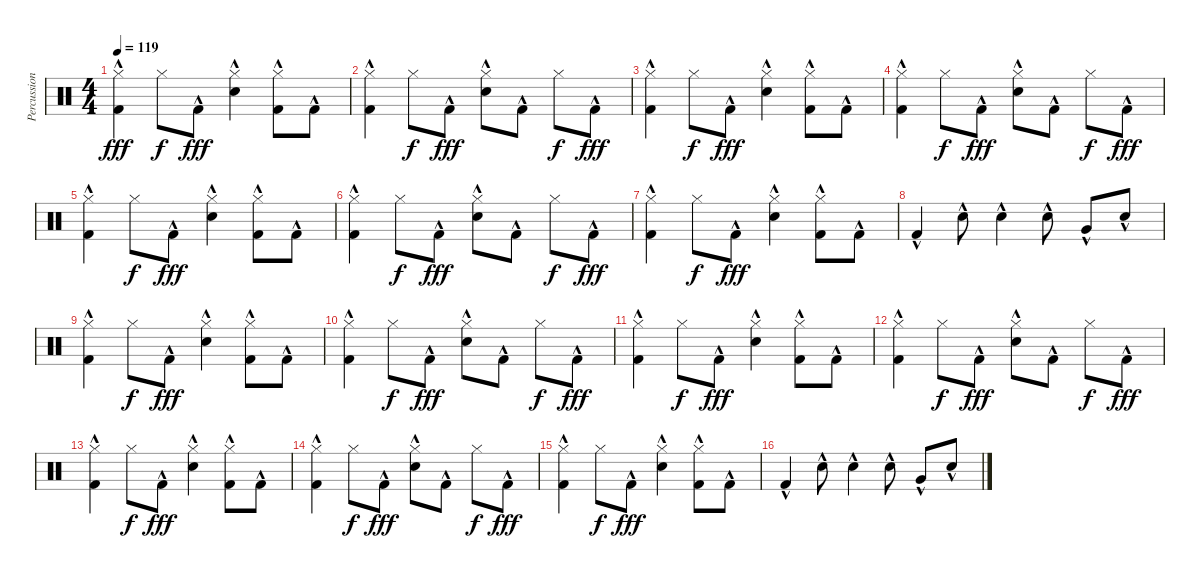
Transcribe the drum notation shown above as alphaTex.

\track ("Percussion" "Percussion") {instrument percussion}
\staff {score}
\articulation defaults
\ts (4 4)
\tempo 119
\clef neutral
\ks c
("Hi-Hat (closed)" "Kick (hit) 2"{hac}).4{dy fff} "Hi-Hat (closed)".8{dy f} "Kick (hit) 2"{hac}.8{dy fff} ("Hi-Hat (closed)" "Electric Snare (hit)"{hac}).4 ("Hi-Hat (closed)" "Kick (hit) 2"{hac}).8 "Kick (hit) 2"{hac}.8 |
("Hi-Hat (closed)" "Kick (hit) 2"{hac}).4 "Hi-Hat (closed)".8{dy f} "Kick (hit) 2"{hac}.8{dy fff} ("Hi-Hat (closed)" "Electric Snare (hit)"{hac}).8 "Kick (hit) 2"{hac}.8 "Hi-Hat (closed)".8{dy f} "Kick (hit) 2"{hac}.8{dy fff} |
("Hi-Hat (closed)" "Kick (hit) 2"{hac}).4 "Hi-Hat (closed)".8{dy f} "Kick (hit) 2"{hac}.8{dy fff} ("Hi-Hat (closed)" "Electric Snare (hit)"{hac}).4 ("Hi-Hat (closed)" "Kick (hit) 2"{hac}).8 "Kick (hit) 2"{hac}.8 |
("Hi-Hat (closed)" "Kick (hit) 2"{hac}).4 "Hi-Hat (closed)".8{dy f} "Kick (hit) 2"{hac}.8{dy fff} ("Hi-Hat (closed)" "Electric Snare (hit)"{hac}).8 "Kick (hit) 2"{hac}.8 "Hi-Hat (closed)".8{dy f} "Kick (hit) 2"{hac}.8{dy fff} |
("Hi-Hat (closed)" "Kick (hit) 2"{hac}).4 "Hi-Hat (closed)".8{dy f} "Kick (hit) 2"{hac}.8{dy fff} ("Hi-Hat (closed)" "Electric Snare (hit)"{hac}).4 ("Hi-Hat (closed)" "Kick (hit) 2"{hac}).8 "Kick (hit) 2"{hac}.8 |
("Hi-Hat (closed)" "Kick (hit) 2"{hac}).4 "Hi-Hat (closed)".8{dy f} "Kick (hit) 2"{hac}.8{dy fff} ("Hi-Hat (closed)" "Electric Snare (hit)"{hac}).8 "Kick (hit) 2"{hac}.8 "Hi-Hat (closed)".8{dy f} "Kick (hit) 2"{hac}.8{dy fff} |
("Hi-Hat (closed)" "Kick (hit) 2"{hac}).4 "Hi-Hat (closed)".8{dy f} "Kick (hit) 2"{hac}.8{dy fff} ("Hi-Hat (closed)" "Electric Snare (hit)"{hac}).4 ("Hi-Hat (closed)" "Kick (hit) 2"{hac}).8 "Kick (hit) 2"{hac}.8 |
"Kick (hit) 2"{hac}.4 "Electric Snare (hit)"{hac}.8 "Electric Snare (hit)"{hac}.4 "Electric Snare (hit)"{hac}.8 "Very Low Tom (hit)"{hac}.8 "Electric Snare (hit)"{hac}.8 |
("Hi-Hat (closed)" "Kick (hit) 2"{hac}).4 "Hi-Hat (closed)".8{dy f} "Kick (hit) 2"{hac}.8{dy fff} ("Hi-Hat (closed)" "Electric Snare (hit)"{hac}).4 ("Hi-Hat (closed)" "Kick (hit) 2"{hac}).8 "Kick (hit) 2"{hac}.8 |
("Hi-Hat (closed)" "Kick (hit) 2"{hac}).4 "Hi-Hat (closed)".8{dy f} "Kick (hit) 2"{hac}.8{dy fff} ("Hi-Hat (closed)" "Electric Snare (hit)"{hac}).8 "Kick (hit) 2"{hac}.8 "Hi-Hat (closed)".8{dy f} "Kick (hit) 2"{hac}.8{dy fff} |
("Hi-Hat (closed)" "Kick (hit) 2"{hac}).4 "Hi-Hat (closed)".8{dy f} "Kick (hit) 2"{hac}.8{dy fff} ("Hi-Hat (closed)" "Electric Snare (hit)"{hac}).4 ("Hi-Hat (closed)" "Kick (hit) 2"{hac}).8 "Kick (hit) 2"{hac}.8 |
("Hi-Hat (closed)" "Kick (hit) 2"{hac}).4 "Hi-Hat (closed)".8{dy f} "Kick (hit) 2"{hac}.8{dy fff} ("Hi-Hat (closed)" "Electric Snare (hit)"{hac}).8 "Kick (hit) 2"{hac}.8 "Hi-Hat (closed)".8{dy f} "Kick (hit) 2"{hac}.8{dy fff} |
("Hi-Hat (closed)" "Kick (hit) 2"{hac}).4 "Hi-Hat (closed)".8{dy f} "Kick (hit) 2"{hac}.8{dy fff} ("Hi-Hat (closed)" "Electric Snare (hit)"{hac}).4 ("Hi-Hat (closed)" "Kick (hit) 2"{hac}).8 "Kick (hit) 2"{hac}.8 |
("Hi-Hat (closed)" "Kick (hit) 2"{hac}).4 "Hi-Hat (closed)".8{dy f} "Kick (hit) 2"{hac}.8{dy fff} ("Hi-Hat (closed)" "Electric Snare (hit)"{hac}).8 "Kick (hit) 2"{hac}.8 "Hi-Hat (closed)".8{dy f} "Kick (hit) 2"{hac}.8{dy fff} |
("Hi-Hat (closed)" "Kick (hit) 2"{hac}).4 "Hi-Hat (closed)".8{dy f} "Kick (hit) 2"{hac}.8{dy fff} ("Hi-Hat (closed)" "Electric Snare (hit)"{hac}).4 ("Hi-Hat (closed)" "Kick (hit) 2"{hac}).8 "Kick (hit) 2"{hac}.8 |
"Kick (hit) 2"{hac}.4 "Electric Snare (hit)"{hac}.8 "Electric Snare (hit)"{hac}.4 "Electric Snare (hit)"{hac}.8 "Very Low Tom (hit)"{hac}.8 "Electric Snare (hit)"{hac}.8
